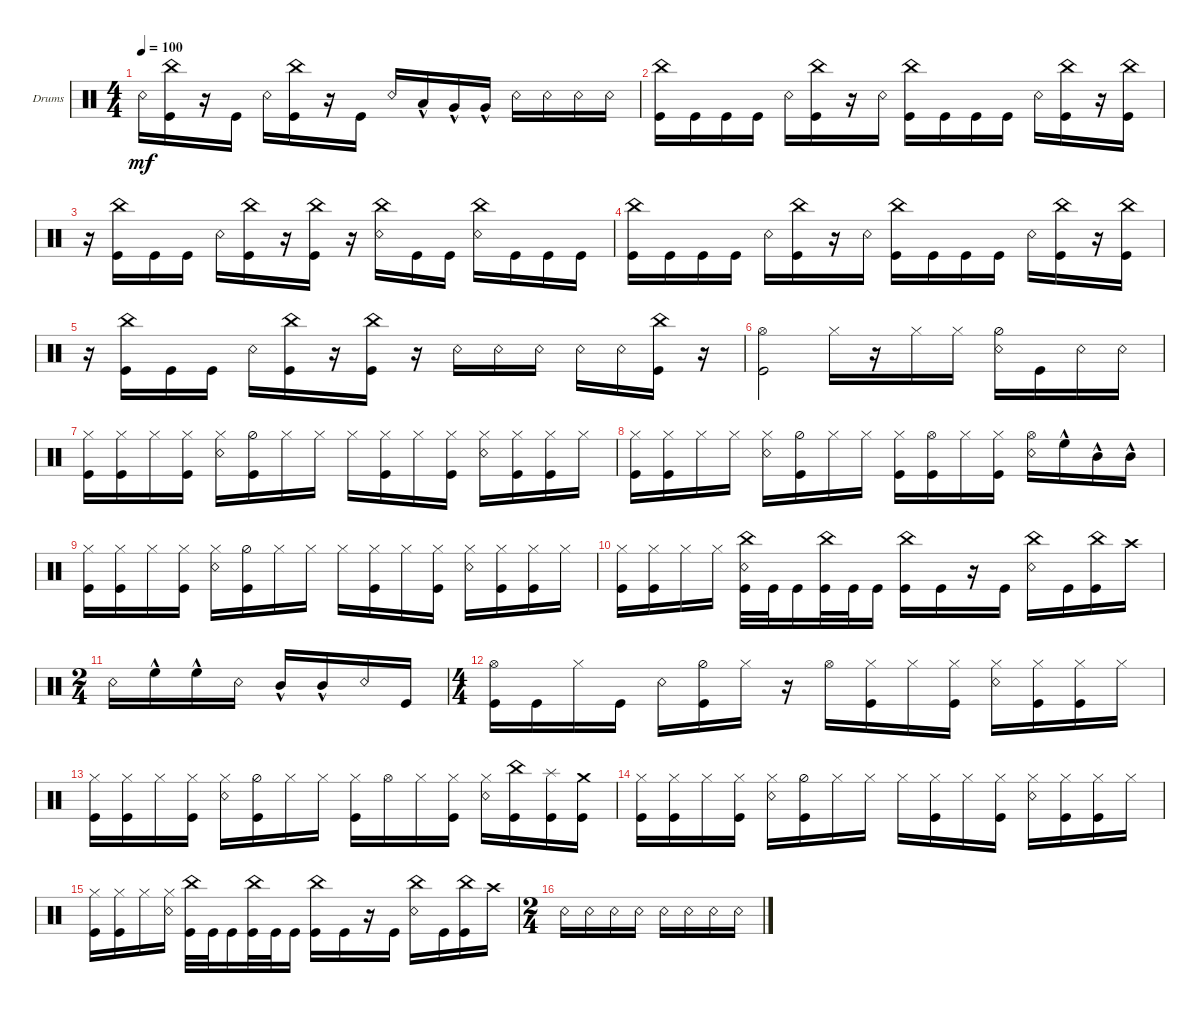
\defaultSystemsLayout 4
\bracketExtendMode groupsimilarinstruments
\firstSystemTrackNameOrientation horizontal
\otherSystemsTrackNameOrientation horizontal
\track ("Drumkit" "Drums") {solo instrument percussion}
\staff {score}
\articulation defaults
\ts (4 4)
\tempo 100
\clef neutral
\ks c "Snare (rim shot)".16{dy mf}
("China (hit)" "Kick (hit)").16 r.16 "Kick (hit)".16 "Snare (rim shot)".16 ("China (hit)" "Kick (hit)").16 r.16 "Kick (hit)".16 "Snare (rim shot)".16 "Low Tom (hit)"{hac}.16 "Very Low Tom (hit)"{hac}.16 "Very Low Tom (hit)"{hac}.16 "Snare (rim shot)".16 "Snare (rim shot)".16 "Snare (rim shot)".16 "Snare (rim shot)".16 |
("Kick (hit)" "China (hit)").16 "Kick (hit)".16 "Kick (hit)".16 "Kick (hit)".16 "Snare (rim shot)".16 ("China (hit)" "Kick (hit)").16 r.16 "Snare (rim shot)".16 ("Kick (hit)" "China (hit)").16 "Kick (hit)".16 "Kick (hit)".16 "Kick (hit)".16 "Snare (rim shot)".16 ("Kick (hit)" "China (hit)").16 r.16 ("Kick (hit)" "China (hit)").16 |
r.16 ("China (hit)" "Kick (hit)").16 "Kick (hit)".16 "Kick (hit)".16 "Snare (rim shot)".16 ("Kick (hit)" "China (hit)").16 r.16 ("China (hit)" "Kick (hit)").16 r.16 ("Snare (rim shot)" "China (hit)").16 "Kick (hit)".16 "Kick (hit)".16 ("Snare (rim shot)" "China (hit)").16 "Kick (hit)".16 "Kick (hit)".16 "Kick (hit)".16 |
("Kick (hit)" "China (hit)").16 "Kick (hit)".16 "Kick (hit)".16 "Kick (hit)".16 "Snare (rim shot)".16 ("China (hit)" "Kick (hit)").16 r.16 "Snare (rim shot)".16 ("Kick (hit)" "China (hit)").16 "Kick (hit)".16 "Kick (hit)".16 "Kick (hit)".16 "Snare (rim shot)".16 ("Kick (hit)" "China (hit)").16 r.16 ("Kick (hit)" "China (hit)").16 |
r.16 ("China (hit)" "Kick (hit)").16 "Kick (hit)".16 "Kick (hit)".16 "Snare (rim shot)".16 ("Kick (hit)" "China (hit)").16 r.16 ("China (hit)" "Kick (hit)").16 r.16 "Snare (rim shot)".16 "Snare (rim shot)".16 "Snare (rim shot)".16 "Snare (rim shot)".16 "Snare (rim shot)".16 ("China (hit)" "Kick (hit)").16 r.16 |
("Kick (hit)" "Hi-Hat (open)").2 "Hi-Hat (closed)".16 r.16 "Hi-Hat (closed)".16 "Hi-Hat (closed)".16 ("Hi-Hat (half)" "Snare (rim shot)").16 "Kick (hit)".16 "Snare (rim shot)".16 "Snare (rim shot)".16 |
("Kick (hit)" "Hi-Hat (closed)").16 ("Kick (hit)" "Hi-Hat (closed)").16 "Hi-Hat (closed)".16 ("Hi-Hat (closed)" "Kick (hit)").16 ("Hi-Hat (closed)" "Snare (rim shot)").16 ("Hi-Hat (half)" "Kick (hit)").16 "Hi-Hat (closed)".16 "Hi-Hat (closed)".16 "Hi-Hat (closed)".16 ("Hi-Hat (closed)" "Kick (hit)").16 "Hi-Hat (closed)".16 ("Hi-Hat (closed)" "Kick (hit)").16 ("Hi-Hat (closed)" "Snare (rim shot)").16 ("Hi-Hat (closed)" "Kick (hit)").16 ("Hi-Hat (closed)" "Kick (hit)").16 "Hi-Hat (closed)".16 |
("Kick (hit)" "Hi-Hat (closed)").16 ("Kick (hit)" "Hi-Hat (closed)").16 "Hi-Hat (closed)".16 "Hi-Hat (closed)".16 ("Hi-Hat (closed)" "Snare (rim shot)").16 ("Hi-Hat (half)" "Kick (hit)").16 "Hi-Hat (closed)".16 "Hi-Hat (closed)".16 ("Hi-Hat (closed)" "Kick (hit)").16 ("Hi-Hat (open)" "Kick (hit)").16 "Hi-Hat (closed)".16 ("Hi-Hat (closed)" "Kick (hit)").16 ("Hi-Hat (open)" "Snare (rim shot)").16 "High Floor Tom (hit)"{hac}.16 "Mid Tom (hit)"{hac}.16 "Mid Tom (hit)"{hac}.16 |
("Kick (hit)" "Hi-Hat (closed)").16 ("Kick (hit)" "Hi-Hat (closed)").16 "Hi-Hat (closed)".16 ("Hi-Hat (closed)" "Kick (hit)").16 ("Hi-Hat (closed)" "Snare (rim shot)").16 ("Hi-Hat (half)" "Kick (hit)").16 "Hi-Hat (closed)".16 "Hi-Hat (closed)".16 "Hi-Hat (closed)".16 ("Hi-Hat (closed)" "Kick (hit)").16 "Hi-Hat (closed)".16 ("Hi-Hat (closed)" "Kick (hit)").16 ("Hi-Hat (closed)" "Snare (rim shot)").16 ("Hi-Hat (closed)" "Kick (hit)").16 ("Hi-Hat (closed)" "Kick (hit)").16 "Hi-Hat (closed)".16 |
("Kick (hit)" "Hi-Hat (closed)").16 ("Kick (hit)" "Hi-Hat (closed)").16 "Hi-Hat (closed)".16 "Hi-Hat (closed)".16 ("Kick (hit)" "China (hit)" "Snare (rim shot)").32 "Kick (hit)".32 "Kick (hit)".16 ("Kick (hit)" "China (hit)").32 "Kick (hit)".32 "Kick (hit)".16 ("China (hit)" "Kick (hit)").16 "Kick (hit)".16 r.16 "Kick (hit)".16 ("Snare (rim shot)" "China (hit)").16 "Kick (hit)".16 ("China (hit)" "Kick (hit)").16 "Crash high (hit)".16 |
\ts (2 4)
"Snare (rim shot)".16 "High Floor Tom (hit)"{hac}.16 "High Floor Tom (hit)"{hac}.16 "Snare (rim shot)".16 "Mid Tom (hit)"{hac}.16 "Mid Tom (hit)"{hac}.16 "Snare (rim shot)".16 "Kick (hit)".16 |
\ts (4 4)
("Kick (hit)" "Hi-Hat (open)").16 "Kick (hit)".16 "Hi-Hat (closed)".16 "Kick (hit)".16 "Snare (rim shot)".16 ("Hi-Hat (half)" "Kick (hit)").16 "Hi-Hat (closed)".16 r.16 "Hi-Hat (open)".16 ("Hi-Hat (closed)" "Kick (hit)").16 "Hi-Hat (closed)".16 ("Hi-Hat (closed)" "Kick (hit)").16 ("Hi-Hat (closed)" "Snare (rim shot)").16 ("Hi-Hat (closed)" "Kick (hit)").16 ("Hi-Hat (closed)" "Kick (hit)").16 "Hi-Hat (closed)".16 |
("Kick (hit)" "Hi-Hat (closed)").16 ("Kick (hit)" "Hi-Hat (closed)").16 "Hi-Hat (closed)".16 ("Hi-Hat (closed)" "Kick (hit)").16 ("Hi-Hat (closed)" "Snare (rim shot)").16 ("Hi-Hat (half)" "Kick (hit)").16 "Hi-Hat (closed)".16 "Hi-Hat (closed)".16 ("Hi-Hat (closed)" "Kick (hit)").16 "Hi-Hat (open)".16 "Hi-Hat (closed)".16 ("Hi-Hat (closed)" "Kick (hit)").16 ("Hi-Hat (closed)" "Snare (rim shot)").16 ("Kick (hit)" "China (hit)").16 ("Kick (hit)" "Splash (hit)").16 ("Crash medium (hit)" "Kick (hit)").16 |
("Kick (hit)" "Hi-Hat (closed)").16 ("Kick (hit)" "Hi-Hat (closed)").16 "Hi-Hat (closed)".16 ("Hi-Hat (closed)" "Kick (hit)").16 ("Hi-Hat (closed)" "Snare (rim shot)").16 ("Hi-Hat (half)" "Kick (hit)").16 "Hi-Hat (closed)".16 "Hi-Hat (closed)".16 "Hi-Hat (closed)".16 ("Hi-Hat (closed)" "Kick (hit)").16 "Hi-Hat (closed)".16 ("Hi-Hat (closed)" "Kick (hit)").16 ("Hi-Hat (closed)" "Snare (rim shot)").16 ("Hi-Hat (closed)" "Kick (hit)").16 ("Hi-Hat (closed)" "Kick (hit)").16 "Hi-Hat (closed)".16 |
("Kick (hit)" "Hi-Hat (closed)").16 ("Kick (hit)" "Hi-Hat (closed)").16 "Hi-Hat (closed)".16 ("Hi-Hat (closed)" "Snare (rim shot)").16 ("Kick (hit)" "China (hit)").32 "Kick (hit)".32 "Kick (hit)".16 ("Kick (hit)" "China (hit)").32 "Kick (hit)".32 "Kick (hit)".16 ("China (hit)" "Kick (hit)").16 "Kick (hit)".16 r.16 "Kick (hit)".16 ("Snare (rim shot)" "China (hit)").16 "Kick (hit)".16 ("China (hit)" "Kick (hit)").16 "Crash high (hit)".16 |
\ts (2 4)
"Snare (rim shot)".16 "Snare (rim shot)".16 "Snare (rim shot)".16 "Snare (rim shot)".16 "Snare (rim shot)".16 "Snare (rim shot)".16 "Snare (rim shot)".16 "Snare (rim shot)".16
